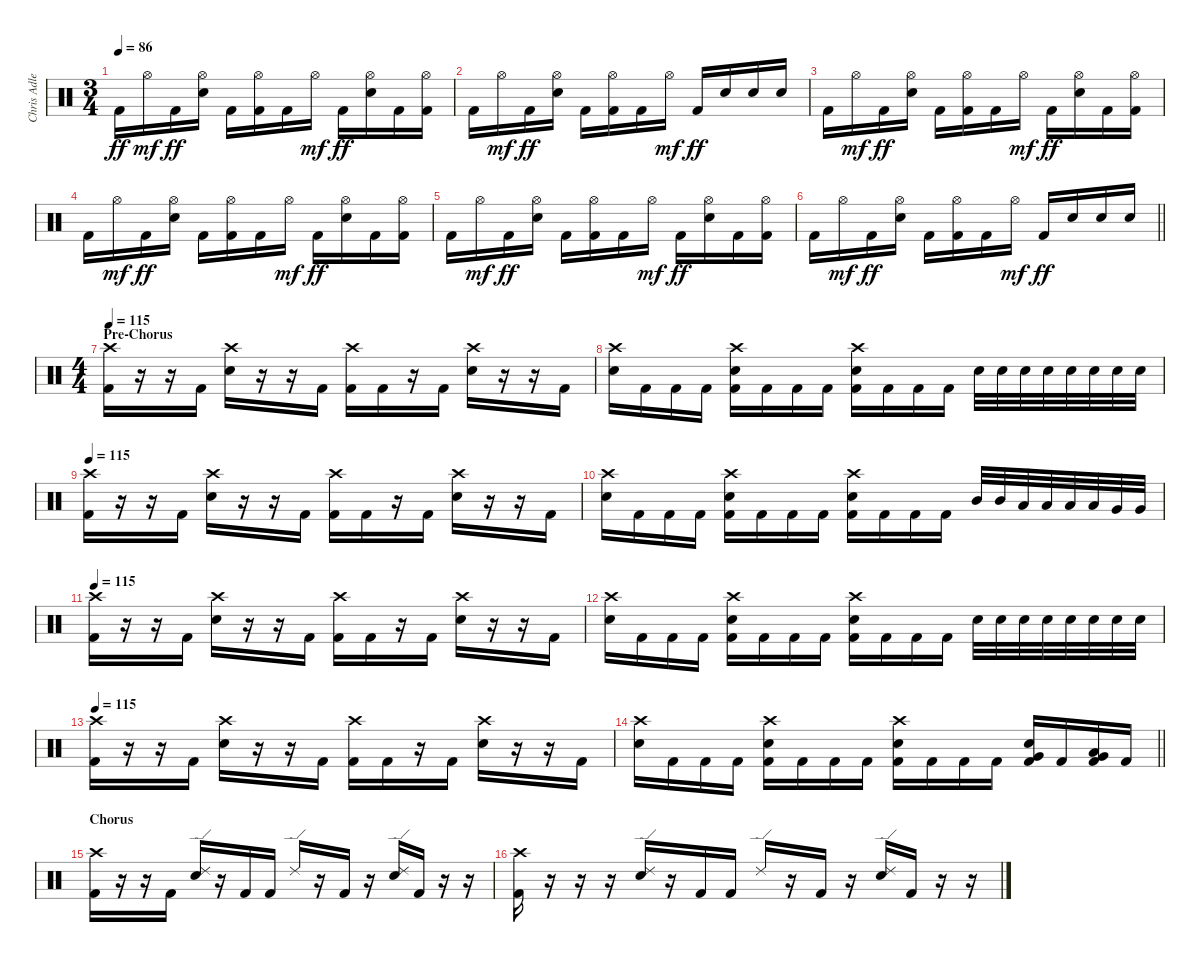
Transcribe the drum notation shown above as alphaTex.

\track ("Chris Adler" "Chris Adle") {instrument percussion}
\staff {score}
\articulation defaults
\ts (3 4)
\tempo 86
\clef neutral
\ks c "Kick (hit) 2".16{dy ff} "Hi-Hat (open)".16{dy mf} "Kick (hit) 2".16{dy ff}
("Hi-Hat (open)" "Snare (hit) 2").16 "Kick (hit) 2".16 ("Hi-Hat (open)" "Kick (hit) 2").16 "Kick (hit) 2".16 "Hi-Hat (open)".16{dy mf} "Kick (hit) 2".16{dy ff} ("Hi-Hat (open)" "Snare (hit) 2").16 "Kick (hit) 2".16 ("Hi-Hat (open)" "Kick (hit) 2").16 |
"Kick (hit) 2".16 "Hi-Hat (open)".16{dy mf} "Kick (hit) 2".16{dy ff} ("Hi-Hat (open)" "Snare (hit) 2").16 "Kick (hit) 2".16 ("Hi-Hat (open)" "Kick (hit) 2").16 "Kick (hit) 2".16 "Hi-Hat (open)".16{dy mf} "Kick (hit) 2".16{dy ff} "Snare (hit) 2".16 "Snare (hit) 2".16 "Snare (hit) 2".16 |
"Kick (hit) 2".16 "Hi-Hat (open)".16{dy mf} "Kick (hit) 2".16{dy ff} ("Hi-Hat (open)" "Snare (hit) 2").16 "Kick (hit) 2".16 ("Hi-Hat (open)" "Kick (hit) 2").16 "Kick (hit) 2".16 "Hi-Hat (open)".16{dy mf} "Kick (hit) 2".16{dy ff} ("Hi-Hat (open)" "Snare (hit) 2").16 "Kick (hit) 2".16 ("Hi-Hat (open)" "Kick (hit) 2").16 |
"Kick (hit) 2".16 "Hi-Hat (open)".16{dy mf} "Kick (hit) 2".16{dy ff} ("Hi-Hat (open)" "Snare (hit) 2").16 "Kick (hit) 2".16 ("Hi-Hat (open)" "Kick (hit) 2").16 "Kick (hit) 2".16 "Hi-Hat (open)".16{dy mf} "Kick (hit) 2".16{dy ff} ("Hi-Hat (open)" "Snare (hit) 2").16 "Kick (hit) 2".16 ("Hi-Hat (open)" "Kick (hit) 2").16 |
"Kick (hit) 2".16 "Hi-Hat (open)".16{dy mf} "Kick (hit) 2".16{dy ff} ("Hi-Hat (open)" "Snare (hit) 2").16 "Kick (hit) 2".16 ("Hi-Hat (open)" "Kick (hit) 2").16 "Kick (hit) 2".16 "Hi-Hat (open)".16{dy mf} "Kick (hit) 2".16{dy ff} ("Hi-Hat (open)" "Snare (hit) 2").16 "Kick (hit) 2".16 ("Hi-Hat (open)" "Kick (hit) 2").16 |
\barLineRight lightlight "Kick (hit) 2".16 "Hi-Hat (open)".16{dy mf} "Kick (hit) 2".16{dy ff}
("Hi-Hat (open)" "Snare (hit) 2").16 "Kick (hit) 2".16 ("Hi-Hat (open)" "Kick (hit) 2").16 "Kick (hit) 2".16 "Hi-Hat (open)".16{dy mf} "Kick (hit) 2".16{dy ff} "Snare (hit) 2".16 "Snare (hit) 2".16 "Snare (hit) 2".16 |
\ts (4 4)
\section ("" "Pre-Chorus")
\tempo 115
("Crash high (hit)" "Kick (hit) 2").16 r.16 r.16 "Kick (hit) 2".16 ("Crash high (hit)" "Snare (hit) 2").16 r.16 r.16 "Kick (hit) 2".16 ("Crash high (hit)" "Kick (hit) 2").16 "Kick (hit) 2".16 r.16 "Kick (hit) 2".16 ("Crash high (hit)" "Snare (hit) 2").16 r.16 r.16 "Kick (hit) 2".16 |
("Crash high (hit)" "Snare (hit) 2").16 "Kick (hit) 2".16 "Kick (hit) 2".16 "Kick (hit) 2".16 ("Crash high (hit)" "Snare (hit) 2" "Kick (hit) 2").16 "Kick (hit) 2".16 "Kick (hit) 2".16 "Kick (hit) 2".16 ("Crash high (hit)" "Snare (hit) 2" "Kick (hit) 2").16 "Kick (hit) 2".16 "Kick (hit) 2".16 "Kick (hit) 2".16 "Snare (hit) 2".32 "Snare (hit) 2".32 "Snare (hit) 2".32 "Snare (hit) 2".32 "Snare (hit) 2".32 "Snare (hit) 2".32 "Snare (hit) 2".32 "Snare (hit) 2".32 |
\tempo 115
("Crash high (hit)" "Kick (hit) 2").16 r.16 r.16 "Kick (hit) 2".16 ("Crash high (hit)" "Snare (hit) 2").16 r.16 r.16 "Kick (hit) 2".16 ("Crash high (hit)" "Kick (hit) 2").16 "Kick (hit) 2".16 r.16 "Kick (hit) 2".16 ("Crash high (hit)" "Snare (hit) 2").16 r.16 r.16 "Kick (hit) 2".16 |
("Crash high (hit)" "Snare (hit) 2").16 "Kick (hit) 2".16 "Kick (hit) 2".16 "Kick (hit) 2".16 ("Crash high (hit)" "Snare (hit) 2" "Kick (hit) 2").16 "Kick (hit) 2".16 "Kick (hit) 2".16 "Kick (hit) 2".16 ("Crash high (hit)" "Snare (hit) 2" "Kick (hit) 2").16 "Kick (hit) 2".16 "Kick (hit) 2".16 "Kick (hit) 2".16 "Mid Tom (hit)".32 "Mid Tom (hit)".32 "Low Tom (hit)".32 "Low Tom (hit)".32 "Low Tom (hit)".32 "Low Tom (hit)".32 "Very Low Tom (hit)".32 "Very Low Tom (hit)".32 |
\tempo 115
("Crash high (hit)" "Kick (hit) 2").16 r.16 r.16 "Kick (hit) 2".16 ("Crash high (hit)" "Snare (hit) 2").16 r.16 r.16 "Kick (hit) 2".16 ("Crash high (hit)" "Kick (hit) 2").16 "Kick (hit) 2".16 r.16 "Kick (hit) 2".16 ("Crash high (hit)" "Snare (hit) 2").16 r.16 r.16 "Kick (hit) 2".16 |
("Crash high (hit)" "Snare (hit) 2").16 "Kick (hit) 2".16 "Kick (hit) 2".16 "Kick (hit) 2".16 ("Crash high (hit)" "Snare (hit) 2" "Kick (hit) 2").16 "Kick (hit) 2".16 "Kick (hit) 2".16 "Kick (hit) 2".16 ("Crash high (hit)" "Snare (hit) 2" "Kick (hit) 2").16 "Kick (hit) 2".16 "Kick (hit) 2".16 "Kick (hit) 2".16 "Snare (hit) 2".32 "Snare (hit) 2".32 "Snare (hit) 2".32 "Snare (hit) 2".32 "Snare (hit) 2".32 "Snare (hit) 2".32 "Snare (hit) 2".32 "Snare (hit) 2".32 |
\tempo 115
("Crash high (hit)" "Kick (hit) 2").16 r.16 r.16 "Kick (hit) 2".16 ("Crash high (hit)" "Snare (hit) 2").16 r.16 r.16 "Kick (hit) 2".16 ("Crash high (hit)" "Kick (hit) 2").16 "Kick (hit) 2".16 r.16 "Kick (hit) 2".16 ("Crash high (hit)" "Snare (hit) 2").16 r.16 r.16 "Kick (hit) 2".16 |
\barLineRight lightlight
("Crash high (hit)" "Snare (hit) 2").16 "Kick (hit) 2".16 "Kick (hit) 2".16 "Kick (hit) 2".16 ("Crash high (hit)" "Snare (hit) 2" "Kick (hit) 2").16 "Kick (hit) 2".16 "Kick (hit) 2".16 "Kick (hit) 2".16 ("Crash high (hit)" "Snare (hit) 2" "Kick (hit) 2").16 "Kick (hit) 2".16 "Kick (hit) 2".16 "Kick (hit) 2".16 ("Very Low Tom (hit)" "Snare (hit) 2" "Kick (hit) 2").16 "Kick (hit) 2".16 ("Low Tom (hit)" "Very Low Tom (hit)" "Kick (hit) 2").16 "Kick (hit) 2".16 |
\section ("" "Chorus")
("Crash high (hit)" "Kick (hit) 2").16 r.16 r.16 "Kick (hit) 2".16 ("Ride (edge) 2" "Snare (hit) 2").16 r.16 "Kick (hit) 2".16 "Kick (hit) 2".16 "Ride (edge) 2".16 r.16 "Kick (hit) 2".16 r.16 ("Ride (edge) 2" "Snare (hit) 2").16 "Kick (hit) 2".16 r.16 r.16 |
("Crash high (hit)" "Kick (hit) 2").16 r.16 r.16 r.16 ("Ride (edge) 2" "Snare (hit) 2").16 r.16 "Kick (hit) 2".16 "Kick (hit) 2".16 "Ride (edge) 2".16 r.16 "Kick (hit) 2".16 r.16 ("Ride (edge) 2" "Snare (hit) 2").16 "Kick (hit) 2".16 r.16 r.16
